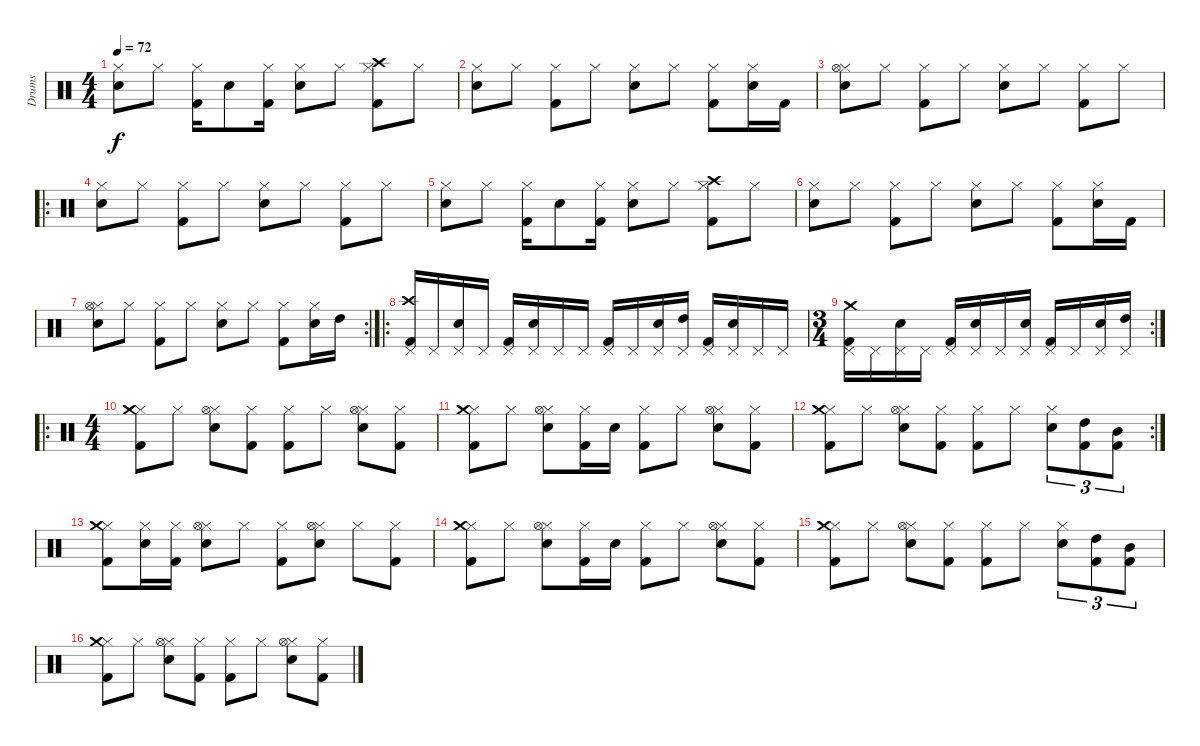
\track ("Drums" "Drums") {instrument percussion}
\staff {score}
\articulation defaults
\ts (4 4)
\tempo 72
\clef neutral
\ks c
("Hi-Hat (closed)" "Electric Snare (hit)").8{dy f} "Hi-Hat (closed)".8 ("Hi-Hat (closed)" "Kick (hit) 2").16 "Electric Snare (hit)".8 ("Hi-Hat (closed)" "Kick (hit) 2").16 ("Hi-Hat (closed)" "Electric Snare (hit)").8 "Hi-Hat (closed)".8 ("Hi-Hat (closed)" "Crash high (hit)" "Kick (hit) 2").8 "Hi-Hat (closed)".8 |
("Hi-Hat (closed)" "Electric Snare (hit)").8 "Hi-Hat (closed)".8 ("Hi-Hat (closed)" "Kick (hit) 2").8 "Hi-Hat (closed)".8 ("Hi-Hat (closed)" "Electric Snare (hit)").8 "Hi-Hat (closed)".8 ("Hi-Hat (closed)" "Kick (hit) 2").8 ("Hi-Hat (closed)" "Electric Snare (hit)").16 "Kick (hit) 2".16 |
("Hi-Hat (closed)" "Hi-Hat (open)" "Electric Snare (hit)").8 "Hi-Hat (closed)".8 ("Hi-Hat (closed)" "Kick (hit) 2").8 "Hi-Hat (closed)".8 ("Hi-Hat (closed)" "Electric Snare (hit)").8 "Hi-Hat (closed)".8 ("Hi-Hat (closed)" "Kick (hit) 2").8 "Hi-Hat (closed)".8 |
\ro
("Hi-Hat (closed)" "Electric Snare (hit)").8 "Hi-Hat (closed)".8 ("Hi-Hat (closed)" "Kick (hit) 2").8 "Hi-Hat (closed)".8 ("Hi-Hat (closed)" "Electric Snare (hit)").8 "Hi-Hat (closed)".8 ("Hi-Hat (closed)" "Kick (hit) 2").8 "Hi-Hat (closed)".8 |
("Hi-Hat (closed)" "Electric Snare (hit)").8 "Hi-Hat (closed)".8 ("Hi-Hat (closed)" "Kick (hit) 2").16 "Electric Snare (hit)".8 ("Hi-Hat (closed)" "Kick (hit) 2").16 ("Hi-Hat (closed)" "Electric Snare (hit)").8 "Hi-Hat (closed)".8 ("Hi-Hat (closed)" "Crash high (hit)" "Kick (hit) 2").8 "Hi-Hat (closed)".8 |
("Hi-Hat (closed)" "Electric Snare (hit)").8 "Hi-Hat (closed)".8 ("Hi-Hat (closed)" "Kick (hit) 2").8 "Hi-Hat (closed)".8 ("Hi-Hat (closed)" "Electric Snare (hit)").8 "Hi-Hat (closed)".8 ("Hi-Hat (closed)" "Kick (hit) 2").8 ("Hi-Hat (closed)" "Electric Snare (hit)").16 "Kick (hit) 2".16 |
\rc 2
("Hi-Hat (closed)" "Hi-Hat (open)" "Electric Snare (hit)").8 "Hi-Hat (closed)".8 ("Hi-Hat (closed)" "Kick (hit) 2").8 "Hi-Hat (closed)".8 ("Hi-Hat (closed)" "Electric Snare (hit)").8 "Hi-Hat (closed)".8 ("Hi-Hat (closed)" "Kick (hit) 2").8 ("Hi-Hat (closed)" "Electric Snare (hit)").16 "High Tom (hit)".16 |
\ro
("Pedal Hi-Hat (hit)" "Kick (hit) 2" "Crash high (hit)").16 "Pedal Hi-Hat (hit)".16 ("Pedal Hi-Hat (hit)" "Electric Snare (hit)").16 "Pedal Hi-Hat (hit)".16 ("Pedal Hi-Hat (hit)" "Kick (hit) 2").16 ("Pedal Hi-Hat (hit)" "Electric Snare (hit)").16 "Pedal Hi-Hat (hit)".16 "Pedal Hi-Hat (hit)".16 ("Pedal Hi-Hat (hit)" "Kick (hit) 2").16 "Pedal Hi-Hat (hit)".16 ("Pedal Hi-Hat (hit)" "Electric Snare (hit)").16 ("Pedal Hi-Hat (hit)" "High Tom (hit)").16 ("Pedal Hi-Hat (hit)" "Kick (hit) 2").16 ("Pedal Hi-Hat (hit)" "Electric Snare (hit)").16 "Pedal Hi-Hat (hit)".16 "Pedal Hi-Hat (hit)".16 |
\rc 2
\ts (3 4)
("Pedal Hi-Hat (hit)" "Kick (hit) 2" "Crash medium (hit)").16 "Pedal Hi-Hat (hit)".16 ("Pedal Hi-Hat (hit)" "Electric Snare (hit)").16 "Pedal Hi-Hat (hit)".16 ("Pedal Hi-Hat (hit)" "Kick (hit) 2").16 ("Pedal Hi-Hat (hit)" "Electric Snare (hit)").16 "Pedal Hi-Hat (hit)".16 ("Pedal Hi-Hat (hit)" "Electric Snare (hit)").16 ("Pedal Hi-Hat (hit)" "Kick (hit) 2").16 "Pedal Hi-Hat (hit)".16 ("Pedal Hi-Hat (hit)" "Electric Snare (hit)").16 ("Pedal Hi-Hat (hit)" "High Tom (hit)").16 |
\ro
\ts (4 4)
("Kick (hit) 2" "Hi-Hat (closed)" "Crash medium (hit)").8 "Hi-Hat (closed)".8 ("Electric Snare (hit)" "Hi-Hat (closed)" "Hi-Hat (open)").8 ("Kick (hit) 2" "Hi-Hat (closed)").8 ("Kick (hit) 2" "Hi-Hat (closed)").8 "Hi-Hat (closed)".8 ("Electric Snare (hit)" "Hi-Hat (closed)" "Hi-Hat (open)").8 ("Kick (hit) 2" "Hi-Hat (closed)").8 |
("Kick (hit) 2" "Hi-Hat (closed)" "Crash medium (hit)").8 "Hi-Hat (closed)".8 ("Electric Snare (hit)" "Hi-Hat (closed)" "Hi-Hat (open)").8 ("Kick (hit) 2" "Hi-Hat (closed)").16 "Electric Snare (hit)".16 ("Kick (hit) 2" "Hi-Hat (closed)").8 "Hi-Hat (closed)".8 ("Electric Snare (hit)" "Hi-Hat (closed)" "Hi-Hat (open)").8 ("Kick (hit) 2" "Hi-Hat (closed)").8 |
\rc 2
("Kick (hit) 2" "Hi-Hat (closed)" "Crash medium (hit)").8 "Hi-Hat (closed)".8 ("Electric Snare (hit)" "Hi-Hat (closed)" "Hi-Hat (open)").8 ("Kick (hit) 2" "Hi-Hat (closed)").8 ("Kick (hit) 2" "Hi-Hat (closed)").8 "Hi-Hat (closed)".8 ("Electric Snare (hit)" "Hi-Hat (closed)").8{tu (3 2)} ("High Tom (hit)" "Kick (hit) 2").8{tu (3 2)} ("Mid Tom (hit)" "Kick (hit) 2").8{tu (3 2)} |
("Hi-Hat (closed)" "Kick (hit) 2" "Crash medium (hit)").8 ("Hi-Hat (closed)" "Electric Snare (hit)").16 ("Hi-Hat (closed)" "Kick (hit) 2").16 ("Hi-Hat (closed)" "Electric Snare (hit)" "Hi-Hat (open)").8 "Hi-Hat (closed)".8 ("Hi-Hat (closed)" "Kick (hit) 2").8 ("Hi-Hat (closed)" "Electric Snare (hit)" "Hi-Hat (open)").8 "Hi-Hat (closed)".8 ("Kick (hit) 2" "Hi-Hat (closed)").8 |
("Kick (hit) 2" "Hi-Hat (closed)" "Crash medium (hit)").8 "Hi-Hat (closed)".8 ("Electric Snare (hit)" "Hi-Hat (closed)" "Hi-Hat (open)").8 ("Kick (hit) 2" "Hi-Hat (closed)").16 "Electric Snare (hit)".16 ("Kick (hit) 2" "Hi-Hat (closed)").8 "Hi-Hat (closed)".8 ("Electric Snare (hit)" "Hi-Hat (closed)" "Hi-Hat (open)").8 ("Kick (hit) 2" "Hi-Hat (closed)").8 |
("Kick (hit) 2" "Hi-Hat (closed)" "Crash medium (hit)").8 "Hi-Hat (closed)".8 ("Electric Snare (hit)" "Hi-Hat (closed)" "Hi-Hat (open)").8 ("Kick (hit) 2" "Hi-Hat (closed)").8 ("Kick (hit) 2" "Hi-Hat (closed)").8 "Hi-Hat (closed)".8 ("Electric Snare (hit)" "Hi-Hat (closed)").8{tu (3 2)} ("High Tom (hit)" "Kick (hit) 2").8{tu (3 2)} ("Mid Tom (hit)" "Kick (hit) 2").8{tu (3 2)} |
("Kick (hit) 2" "Hi-Hat (closed)" "Crash medium (hit)").8 "Hi-Hat (closed)".8 ("Electric Snare (hit)" "Hi-Hat (closed)" "Hi-Hat (open)").8 ("Kick (hit) 2" "Hi-Hat (closed)").8 ("Kick (hit) 2" "Hi-Hat (closed)").8 "Hi-Hat (closed)".8 ("Electric Snare (hit)" "Hi-Hat (closed)" "Hi-Hat (open)").8 ("Kick (hit) 2" "Hi-Hat (closed)").8
